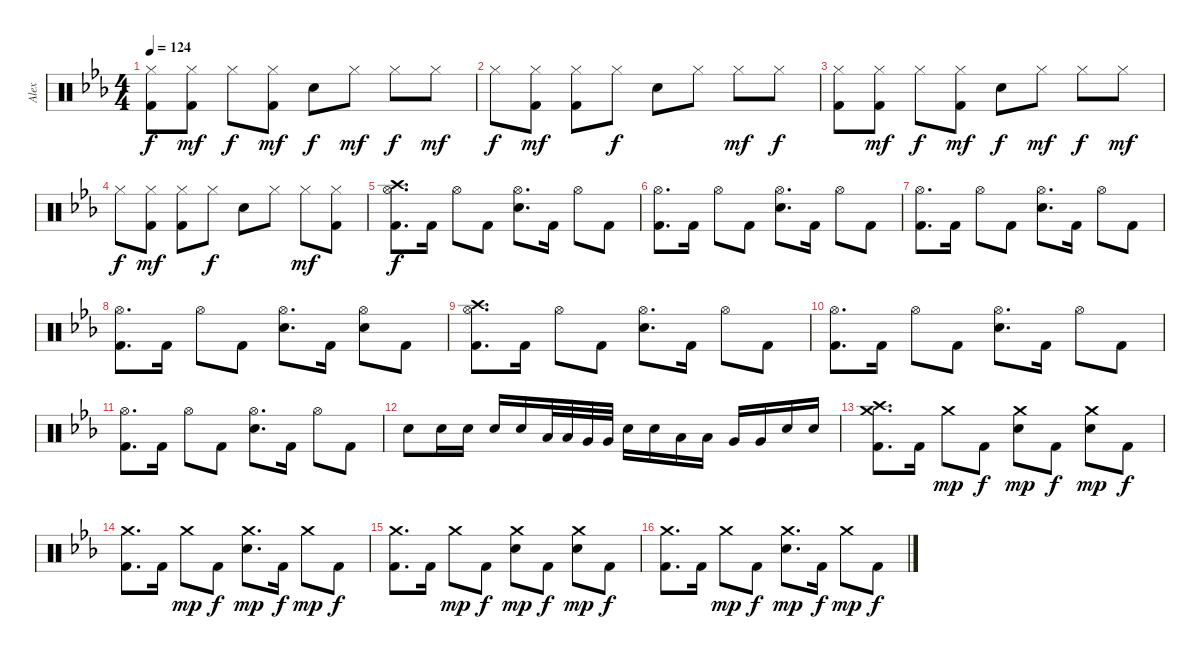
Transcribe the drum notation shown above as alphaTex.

\track ("Alex" "Alex") {instrument percussion}
\staff {score}
\articulation defaults
\ts (4 4)
\tempo 124
\clef neutral
\ks cminor
("Hi-Hat (closed)" "Kick (hit) 2").8{dy f} ("Hi-Hat (closed)" "Kick (hit) 2").8{dy mf} "Hi-Hat (closed)".8{dy f} ("Hi-Hat (closed)" "Kick (hit) 2").8{dy mf} "Electric Snare (hit)".8{dy f} "Hi-Hat (closed)".8{dy mf} "Hi-Hat (closed)".8{dy f} "Hi-Hat (closed)".8{dy mf} |
"Hi-Hat (closed)".8{dy f} ("Hi-Hat (closed)" "Kick (hit) 2").8{dy mf} ("Hi-Hat (closed)" "Kick (hit) 2").8 "Hi-Hat (closed)".8{dy f} "Electric Snare (hit)".8 "Hi-Hat (closed)".8 "Hi-Hat (closed)".8{dy mf} "Hi-Hat (closed)".8{dy f} |
("Hi-Hat (closed)" "Kick (hit) 2").8 ("Hi-Hat (closed)" "Kick (hit) 2").8{dy mf} "Hi-Hat (closed)".8{dy f} ("Hi-Hat (closed)" "Kick (hit) 2").8{dy mf} "Electric Snare (hit)".8{dy f} "Hi-Hat (closed)".8{dy mf} "Hi-Hat (closed)".8{dy f} "Hi-Hat (closed)".8{dy mf} |
"Hi-Hat (closed)".8{dy f} ("Hi-Hat (closed)" "Kick (hit) 2").8{dy mf} ("Hi-Hat (closed)" "Kick (hit) 2").8 "Hi-Hat (closed)".8{dy f} "Electric Snare (hit)".8 "Hi-Hat (closed)".8 "Hi-Hat (closed)".8{dy mf} ("Hi-Hat (closed)" "Kick (hit) 2").8 |
("Crash high (hit)" "Hi-Hat (open)" "Kick (hit) 2").8{d dy f} "Kick (hit) 2".16 "Hi-Hat (open)".8 "Kick (hit) 2".8 ("Electric Snare (hit)" "Hi-Hat (open)").8{d} "Kick (hit) 2".16 "Hi-Hat (open)".8 "Kick (hit) 2".8 |
("Hi-Hat (open)" "Kick (hit) 2").8{d} "Kick (hit) 2".16 "Hi-Hat (open)".8 "Kick (hit) 2".8 ("Electric Snare (hit)" "Hi-Hat (open)").8{d} "Kick (hit) 2".16 "Hi-Hat (open)".8 "Kick (hit) 2".8 |
("Hi-Hat (open)" "Kick (hit) 2").8{d} "Kick (hit) 2".16 "Hi-Hat (open)".8 "Kick (hit) 2".8 ("Electric Snare (hit)" "Hi-Hat (open)").8{d} "Kick (hit) 2".16 "Hi-Hat (open)".8 "Kick (hit) 2".8 |
("Hi-Hat (open)" "Kick (hit) 2").8{d} "Kick (hit) 2".16 "Hi-Hat (open)".8 "Kick (hit) 2".8 ("Electric Snare (hit)" "Hi-Hat (open)").8{d} "Kick (hit) 2".16 ("Electric Snare (hit)" "Hi-Hat (open)").8 "Kick (hit) 2".8 |
("Crash high (hit)" "Hi-Hat (open)" "Kick (hit) 2").8{d} "Kick (hit) 2".16 "Hi-Hat (open)".8 "Kick (hit) 2".8 ("Electric Snare (hit)" "Hi-Hat (open)").8{d} "Kick (hit) 2".16 "Hi-Hat (open)".8 "Kick (hit) 2".8 |
("Hi-Hat (open)" "Kick (hit) 2").8{d} "Kick (hit) 2".16 "Hi-Hat (open)".8 "Kick (hit) 2".8 ("Electric Snare (hit)" "Hi-Hat (open)").8{d} "Kick (hit) 2".16 "Hi-Hat (open)".8 "Kick (hit) 2".8 |
("Hi-Hat (open)" "Kick (hit) 2").8{d} "Kick (hit) 2".16 "Hi-Hat (open)".8 "Kick (hit) 2".8 ("Electric Snare (hit)" "Hi-Hat (open)").8{d} "Kick (hit) 2".16 "Hi-Hat (open)".8 "Kick (hit) 2".8 |
"Electric Snare (hit)".8 "Electric Snare (hit)".16 "Electric Snare (hit)".16 "Electric Snare (hit)".16 "Electric Snare (hit)".16 "Low Tom (hit)".32 "Low Tom (hit)".32 "Very Low Tom (hit)".32 "Very Low Tom (hit)".32 "Electric Snare (hit)".16 "Electric Snare (hit)".16 "Low Tom (hit)".16 "Low Tom (hit)".16 "Very Low Tom (hit)".16 "Very Low Tom (hit)".16 "Electric Snare (hit)".16 "Electric Snare (hit)".16 |
("Crash high (hit)" "Crash medium (hit)" "Kick (hit) 2").8{d} "Kick (hit) 2".16 "Crash medium (hit)".8{dy mp} "Kick (hit) 2".8{dy f} ("Crash medium (hit)" "Electric Snare (hit)").8{dy mp} "Kick (hit) 2".8{dy f} ("Crash medium (hit)" "Electric Snare (hit)").8{dy mp} "Kick (hit) 2".8{dy f} |
("Crash medium (hit)" "Kick (hit) 2").8{d} "Kick (hit) 2".16 "Crash medium (hit)".8{dy mp} "Kick (hit) 2".8{dy f} ("Crash medium (hit)" "Electric Snare (hit)").8{d dy mp} "Kick (hit) 2".16{dy f} "Crash medium (hit)".8{dy mp} "Kick (hit) 2".8{dy f} |
("Crash medium (hit)" "Kick (hit) 2").8{d} "Kick (hit) 2".16 "Crash medium (hit)".8{dy mp} "Kick (hit) 2".8{dy f} ("Crash medium (hit)" "Electric Snare (hit)").8{dy mp} "Kick (hit) 2".8{dy f} ("Crash medium (hit)" "Electric Snare (hit)").8{dy mp} "Kick (hit) 2".8{dy f} |
("Crash medium (hit)" "Kick (hit) 2").8{d} "Kick (hit) 2".16 "Crash medium (hit)".8{dy mp} "Kick (hit) 2".8{dy f} ("Crash medium (hit)" "Electric Snare (hit)").8{d dy mp} "Kick (hit) 2".16{dy f} "Crash medium (hit)".8{dy mp} "Kick (hit) 2".8{dy f}
